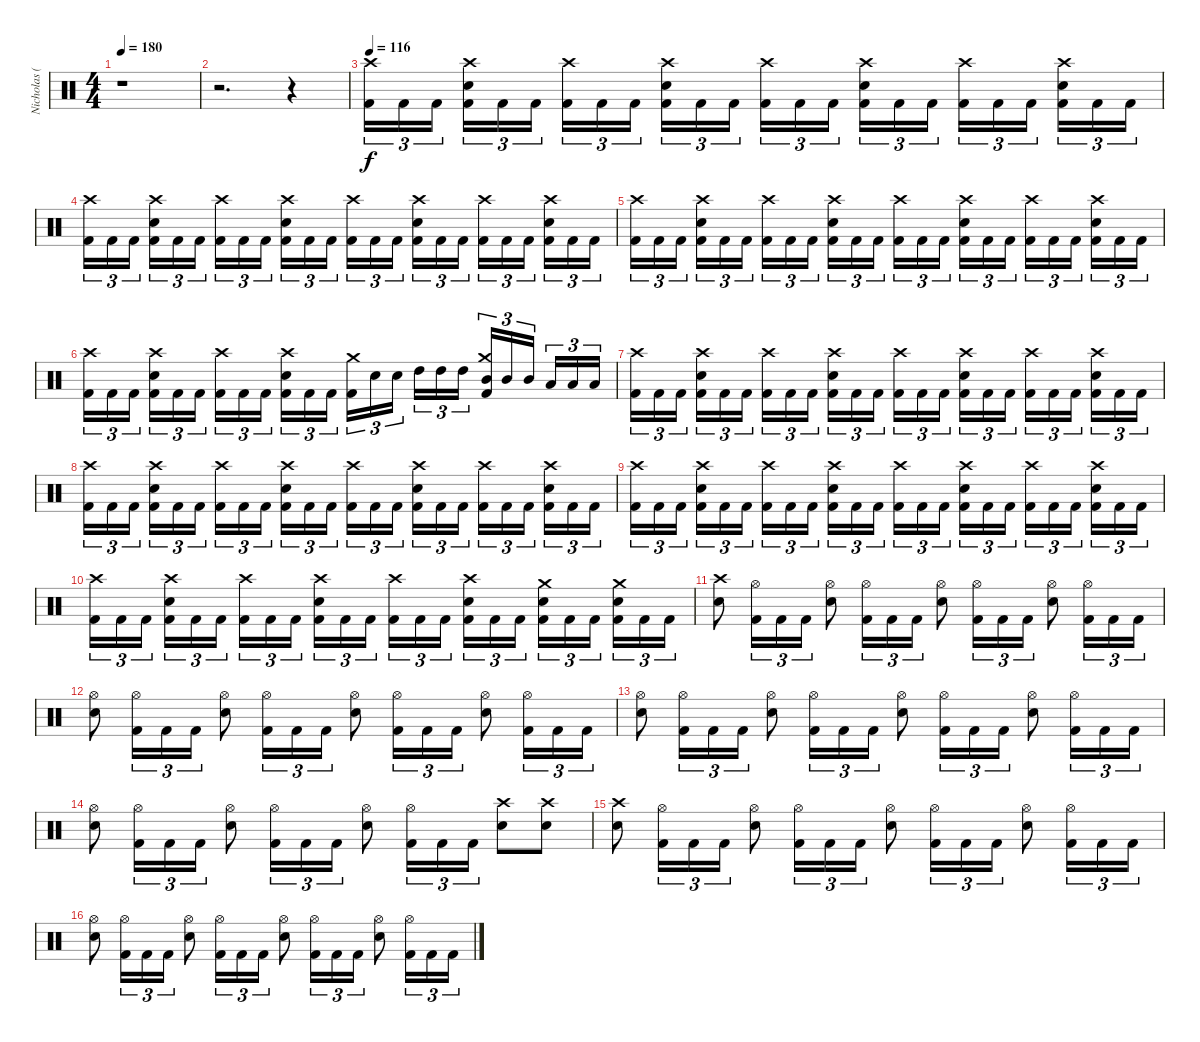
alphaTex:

\track ("Nicholas (Drums)" "Nicholas (") {instrument percussion}
\staff {score}
\articulation defaults
\ts (4 4)
\tempo 180
\clef neutral
\ks c
r.1{dy f} |
r.2{d} r.4 |
\tempo 116
("Crash high (hit)" "Kick (hit) 2").16{tu (3 2)} "Kick (hit) 2".16{tu (3 2)} "Kick (hit) 2".16{tu (3 2)} ("Crash high (hit)" "Electric Snare (hit)" "Kick (hit) 2").16{tu (3 2)} "Kick (hit) 2".16{tu (3 2)} "Kick (hit) 2".16{tu (3 2)} ("Crash high (hit)" "Kick (hit) 2").16{tu (3 2)} "Kick (hit) 2".16{tu (3 2)} "Kick (hit) 2".16{tu (3 2)} ("Crash high (hit)" "Electric Snare (hit)" "Kick (hit) 2").16{tu (3 2)} "Kick (hit) 2".16{tu (3 2)} "Kick (hit) 2".16{tu (3 2)} ("Crash high (hit)" "Kick (hit) 2").16{tu (3 2)} "Kick (hit) 2".16{tu (3 2)} "Kick (hit) 2".16{tu (3 2)} ("Crash high (hit)" "Electric Snare (hit)" "Kick (hit) 2").16{tu (3 2)} "Kick (hit) 2".16{tu (3 2)} "Kick (hit) 2".16{tu (3 2)} ("Crash high (hit)" "Kick (hit) 2").16{tu (3 2)} "Kick (hit) 2".16{tu (3 2)} "Kick (hit) 2".16{tu (3 2)} ("Crash high (hit)" "Electric Snare (hit)" "Kick (hit) 2").16{tu (3 2)} "Kick (hit) 2".16{tu (3 2)} "Kick (hit) 2".16{tu (3 2)} |
("Crash high (hit)" "Kick (hit) 2").16{tu (3 2)} "Kick (hit) 2".16{tu (3 2)} "Kick (hit) 2".16{tu (3 2)} ("Crash high (hit)" "Electric Snare (hit)" "Kick (hit) 2").16{tu (3 2)} "Kick (hit) 2".16{tu (3 2)} "Kick (hit) 2".16{tu (3 2)} ("Crash high (hit)" "Kick (hit) 2").16{tu (3 2)} "Kick (hit) 2".16{tu (3 2)} "Kick (hit) 2".16{tu (3 2)} ("Crash high (hit)" "Electric Snare (hit)" "Kick (hit) 2").16{tu (3 2)} "Kick (hit) 2".16{tu (3 2)} "Kick (hit) 2".16{tu (3 2)} ("Crash high (hit)" "Kick (hit) 2").16{tu (3 2)} "Kick (hit) 2".16{tu (3 2)} "Kick (hit) 2".16{tu (3 2)} ("Crash high (hit)" "Electric Snare (hit)" "Kick (hit) 2").16{tu (3 2)} "Kick (hit) 2".16{tu (3 2)} "Kick (hit) 2".16{tu (3 2)} ("Crash high (hit)" "Kick (hit) 2").16{tu (3 2)} "Kick (hit) 2".16{tu (3 2)} "Kick (hit) 2".16{tu (3 2)} ("Crash high (hit)" "Electric Snare (hit)" "Kick (hit) 2").16{tu (3 2)} "Kick (hit) 2".16{tu (3 2)} "Kick (hit) 2".16{tu (3 2)} |
("Crash high (hit)" "Kick (hit) 2").16{tu (3 2)} "Kick (hit) 2".16{tu (3 2)} "Kick (hit) 2".16{tu (3 2)} ("Crash high (hit)" "Electric Snare (hit)" "Kick (hit) 2").16{tu (3 2)} "Kick (hit) 2".16{tu (3 2)} "Kick (hit) 2".16{tu (3 2)} ("Crash high (hit)" "Kick (hit) 2").16{tu (3 2)} "Kick (hit) 2".16{tu (3 2)} "Kick (hit) 2".16{tu (3 2)} ("Crash high (hit)" "Electric Snare (hit)" "Kick (hit) 2").16{tu (3 2)} "Kick (hit) 2".16{tu (3 2)} "Kick (hit) 2".16{tu (3 2)} ("Crash high (hit)" "Kick (hit) 2").16{tu (3 2)} "Kick (hit) 2".16{tu (3 2)} "Kick (hit) 2".16{tu (3 2)} ("Crash high (hit)" "Electric Snare (hit)" "Kick (hit) 2").16{tu (3 2)} "Kick (hit) 2".16{tu (3 2)} "Kick (hit) 2".16{tu (3 2)} ("Crash high (hit)" "Kick (hit) 2").16{tu (3 2)} "Kick (hit) 2".16{tu (3 2)} "Kick (hit) 2".16{tu (3 2)} ("Crash high (hit)" "Electric Snare (hit)" "Kick (hit) 2").16{tu (3 2)} "Kick (hit) 2".16{tu (3 2)} "Kick (hit) 2".16{tu (3 2)} |
("Crash high (hit)" "Kick (hit) 2").16{tu (3 2)} "Kick (hit) 2".16{tu (3 2)} "Kick (hit) 2".16{tu (3 2)} ("Crash high (hit)" "Electric Snare (hit)" "Kick (hit) 2").16{tu (3 2)} "Kick (hit) 2".16{tu (3 2)} "Kick (hit) 2".16{tu (3 2)} ("Crash high (hit)" "Kick (hit) 2").16{tu (3 2)} "Kick (hit) 2".16{tu (3 2)} "Kick (hit) 2".16{tu (3 2)} ("Crash high (hit)" "Electric Snare (hit)" "Kick (hit) 2").16{tu (3 2)} "Kick (hit) 2".16{tu (3 2)} "Kick (hit) 2".16{tu (3 2)} ("Crash medium (hit)" "Kick (hit) 2").16{tu (3 2)} "Electric Snare (hit)".16{tu (3 2)} "Electric Snare (hit)".16{tu (3 2)} "High Tom (hit)".16{tu (3 2)} "High Tom (hit)".16{tu (3 2)} "High Tom (hit)".16{tu (3 2)} ("Crash medium (hit)" "Mid Tom (hit)" "Kick (hit) 2").16{tu (3 2)} "Mid Tom (hit)".16{tu (3 2)} "Mid Tom (hit)".16{tu (3 2)} "Low Tom (hit)".16{tu (3 2)} "Low Tom (hit)".16{tu (3 2)} "Low Tom (hit)".16{tu (3 2)} |
("Crash high (hit)" "Kick (hit) 2").16{tu (3 2)} "Kick (hit) 2".16{tu (3 2)} "Kick (hit) 2".16{tu (3 2)} ("Crash high (hit)" "Electric Snare (hit)" "Kick (hit) 2").16{tu (3 2)} "Kick (hit) 2".16{tu (3 2)} "Kick (hit) 2".16{tu (3 2)} ("Crash high (hit)" "Kick (hit) 2").16{tu (3 2)} "Kick (hit) 2".16{tu (3 2)} "Kick (hit) 2".16{tu (3 2)} ("Crash high (hit)" "Electric Snare (hit)" "Kick (hit) 2").16{tu (3 2)} "Kick (hit) 2".16{tu (3 2)} "Kick (hit) 2".16{tu (3 2)} ("Crash high (hit)" "Kick (hit) 2").16{tu (3 2)} "Kick (hit) 2".16{tu (3 2)} "Kick (hit) 2".16{tu (3 2)} ("Crash high (hit)" "Electric Snare (hit)" "Kick (hit) 2").16{tu (3 2)} "Kick (hit) 2".16{tu (3 2)} "Kick (hit) 2".16{tu (3 2)} ("Crash high (hit)" "Kick (hit) 2").16{tu (3 2)} "Kick (hit) 2".16{tu (3 2)} "Kick (hit) 2".16{tu (3 2)} ("Crash high (hit)" "Electric Snare (hit)" "Kick (hit) 2").16{tu (3 2)} "Kick (hit) 2".16{tu (3 2)} "Kick (hit) 2".16{tu (3 2)} |
("Crash high (hit)" "Kick (hit) 2").16{tu (3 2)} "Kick (hit) 2".16{tu (3 2)} "Kick (hit) 2".16{tu (3 2)} ("Crash high (hit)" "Electric Snare (hit)" "Kick (hit) 2").16{tu (3 2)} "Kick (hit) 2".16{tu (3 2)} "Kick (hit) 2".16{tu (3 2)} ("Crash high (hit)" "Kick (hit) 2").16{tu (3 2)} "Kick (hit) 2".16{tu (3 2)} "Kick (hit) 2".16{tu (3 2)} ("Crash high (hit)" "Electric Snare (hit)" "Kick (hit) 2").16{tu (3 2)} "Kick (hit) 2".16{tu (3 2)} "Kick (hit) 2".16{tu (3 2)} ("Crash high (hit)" "Kick (hit) 2").16{tu (3 2)} "Kick (hit) 2".16{tu (3 2)} "Kick (hit) 2".16{tu (3 2)} ("Crash high (hit)" "Electric Snare (hit)" "Kick (hit) 2").16{tu (3 2)} "Kick (hit) 2".16{tu (3 2)} "Kick (hit) 2".16{tu (3 2)} ("Crash high (hit)" "Kick (hit) 2").16{tu (3 2)} "Kick (hit) 2".16{tu (3 2)} "Kick (hit) 2".16{tu (3 2)} ("Crash high (hit)" "Electric Snare (hit)" "Kick (hit) 2").16{tu (3 2)} "Kick (hit) 2".16{tu (3 2)} "Kick (hit) 2".16{tu (3 2)} |
("Crash high (hit)" "Kick (hit) 2").16{tu (3 2)} "Kick (hit) 2".16{tu (3 2)} "Kick (hit) 2".16{tu (3 2)} ("Crash high (hit)" "Electric Snare (hit)" "Kick (hit) 2").16{tu (3 2)} "Kick (hit) 2".16{tu (3 2)} "Kick (hit) 2".16{tu (3 2)} ("Crash high (hit)" "Kick (hit) 2").16{tu (3 2)} "Kick (hit) 2".16{tu (3 2)} "Kick (hit) 2".16{tu (3 2)} ("Crash high (hit)" "Electric Snare (hit)" "Kick (hit) 2").16{tu (3 2)} "Kick (hit) 2".16{tu (3 2)} "Kick (hit) 2".16{tu (3 2)} ("Crash high (hit)" "Kick (hit) 2").16{tu (3 2)} "Kick (hit) 2".16{tu (3 2)} "Kick (hit) 2".16{tu (3 2)} ("Crash high (hit)" "Electric Snare (hit)" "Kick (hit) 2").16{tu (3 2)} "Kick (hit) 2".16{tu (3 2)} "Kick (hit) 2".16{tu (3 2)} ("Crash high (hit)" "Kick (hit) 2").16{tu (3 2)} "Kick (hit) 2".16{tu (3 2)} "Kick (hit) 2".16{tu (3 2)} ("Crash high (hit)" "Electric Snare (hit)" "Kick (hit) 2").16{tu (3 2)} "Kick (hit) 2".16{tu (3 2)} "Kick (hit) 2".16{tu (3 2)} |
("Crash high (hit)" "Kick (hit) 2").16{tu (3 2)} "Kick (hit) 2".16{tu (3 2)} "Kick (hit) 2".16{tu (3 2)} ("Crash high (hit)" "Electric Snare (hit)" "Kick (hit) 2").16{tu (3 2)} "Kick (hit) 2".16{tu (3 2)} "Kick (hit) 2".16{tu (3 2)} ("Crash high (hit)" "Kick (hit) 2").16{tu (3 2)} "Kick (hit) 2".16{tu (3 2)} "Kick (hit) 2".16{tu (3 2)} ("Crash high (hit)" "Electric Snare (hit)" "Kick (hit) 2").16{tu (3 2)} "Kick (hit) 2".16{tu (3 2)} "Kick (hit) 2".16{tu (3 2)} ("Crash high (hit)" "Kick (hit) 2").16{tu (3 2)} "Kick (hit) 2".16{tu (3 2)} "Kick (hit) 2".16{tu (3 2)} ("Crash high (hit)" "Electric Snare (hit)" "Kick (hit) 2").16{tu (3 2)} "Kick (hit) 2".16{tu (3 2)} "Kick (hit) 2".16{tu (3 2)} ("Crash medium (hit)" "Electric Snare (hit)" "Kick (hit) 2").16{tu (3 2)} "Kick (hit) 2".16{tu (3 2)} "Kick (hit) 2".16{tu (3 2)} ("Crash medium (hit)" "Electric Snare (hit)" "Kick (hit) 2").16{tu (3 2)} "Kick (hit) 2".16{tu (3 2)} "Kick (hit) 2".16{tu (3 2)} |
("Crash high (hit)" "Electric Snare (hit)").8 ("Hi-Hat (open)" "Kick (hit) 2").16{tu (3 2)} "Kick (hit) 2".16{tu (3 2)} "Kick (hit) 2".16{tu (3 2)} ("Hi-Hat (open)" "Electric Snare (hit)").8 ("Hi-Hat (open)" "Kick (hit) 2").16{tu (3 2)} "Kick (hit) 2".16{tu (3 2)} "Kick (hit) 2".16{tu (3 2)} ("Hi-Hat (open)" "Electric Snare (hit)").8 ("Hi-Hat (open)" "Kick (hit) 2").16{tu (3 2)} "Kick (hit) 2".16{tu (3 2)} "Kick (hit) 2".16{tu (3 2)} ("Hi-Hat (open)" "Electric Snare (hit)").8 ("Hi-Hat (open)" "Kick (hit) 2").16{tu (3 2)} "Kick (hit) 2".16{tu (3 2)} "Kick (hit) 2".16{tu (3 2)} |
("Hi-Hat (open)" "Electric Snare (hit)").8 ("Hi-Hat (open)" "Kick (hit) 2").16{tu (3 2)} "Kick (hit) 2".16{tu (3 2)} "Kick (hit) 2".16{tu (3 2)} ("Hi-Hat (open)" "Electric Snare (hit)").8 ("Hi-Hat (open)" "Kick (hit) 2").16{tu (3 2)} "Kick (hit) 2".16{tu (3 2)} "Kick (hit) 2".16{tu (3 2)} ("Hi-Hat (open)" "Electric Snare (hit)").8 ("Hi-Hat (open)" "Kick (hit) 2").16{tu (3 2)} "Kick (hit) 2".16{tu (3 2)} "Kick (hit) 2".16{tu (3 2)} ("Hi-Hat (open)" "Electric Snare (hit)").8 ("Hi-Hat (open)" "Kick (hit) 2").16{tu (3 2)} "Kick (hit) 2".16{tu (3 2)} "Kick (hit) 2".16{tu (3 2)} |
("Hi-Hat (open)" "Electric Snare (hit)").8 ("Hi-Hat (open)" "Kick (hit) 2").16{tu (3 2)} "Kick (hit) 2".16{tu (3 2)} "Kick (hit) 2".16{tu (3 2)} ("Hi-Hat (open)" "Electric Snare (hit)").8 ("Hi-Hat (open)" "Kick (hit) 2").16{tu (3 2)} "Kick (hit) 2".16{tu (3 2)} "Kick (hit) 2".16{tu (3 2)} ("Hi-Hat (open)" "Electric Snare (hit)").8 ("Hi-Hat (open)" "Kick (hit) 2").16{tu (3 2)} "Kick (hit) 2".16{tu (3 2)} "Kick (hit) 2".16{tu (3 2)} ("Hi-Hat (open)" "Electric Snare (hit)").8 ("Hi-Hat (open)" "Kick (hit) 2").16{tu (3 2)} "Kick (hit) 2".16{tu (3 2)} "Kick (hit) 2".16{tu (3 2)} |
("Hi-Hat (open)" "Electric Snare (hit)").8 ("Hi-Hat (open)" "Kick (hit) 2").16{tu (3 2)} "Kick (hit) 2".16{tu (3 2)} "Kick (hit) 2".16{tu (3 2)} ("Hi-Hat (open)" "Electric Snare (hit)").8 ("Hi-Hat (open)" "Kick (hit) 2").16{tu (3 2)} "Kick (hit) 2".16{tu (3 2)} "Kick (hit) 2".16{tu (3 2)} ("Hi-Hat (open)" "Electric Snare (hit)").8 ("Hi-Hat (open)" "Kick (hit) 2").16{tu (3 2)} "Kick (hit) 2".16{tu (3 2)} "Kick (hit) 2".16{tu (3 2)} ("Crash high (hit)" "Electric Snare (hit)").8 ("Crash high (hit)" "Electric Snare (hit)").8 |
("Crash high (hit)" "Electric Snare (hit)").8 ("Hi-Hat (open)" "Kick (hit) 2").16{tu (3 2)} "Kick (hit) 2".16{tu (3 2)} "Kick (hit) 2".16{tu (3 2)} ("Hi-Hat (open)" "Electric Snare (hit)").8 ("Hi-Hat (open)" "Kick (hit) 2").16{tu (3 2)} "Kick (hit) 2".16{tu (3 2)} "Kick (hit) 2".16{tu (3 2)} ("Hi-Hat (open)" "Electric Snare (hit)").8 ("Hi-Hat (open)" "Kick (hit) 2").16{tu (3 2)} "Kick (hit) 2".16{tu (3 2)} "Kick (hit) 2".16{tu (3 2)} ("Hi-Hat (open)" "Electric Snare (hit)").8 ("Hi-Hat (open)" "Kick (hit) 2").16{tu (3 2)} "Kick (hit) 2".16{tu (3 2)} "Kick (hit) 2".16{tu (3 2)} |
("Hi-Hat (open)" "Electric Snare (hit)").8 ("Hi-Hat (open)" "Kick (hit) 2").16{tu (3 2)} "Kick (hit) 2".16{tu (3 2)} "Kick (hit) 2".16{tu (3 2)} ("Hi-Hat (open)" "Electric Snare (hit)").8 ("Hi-Hat (open)" "Kick (hit) 2").16{tu (3 2)} "Kick (hit) 2".16{tu (3 2)} "Kick (hit) 2".16{tu (3 2)} ("Hi-Hat (open)" "Electric Snare (hit)").8 ("Hi-Hat (open)" "Kick (hit) 2").16{tu (3 2)} "Kick (hit) 2".16{tu (3 2)} "Kick (hit) 2".16{tu (3 2)} ("Hi-Hat (open)" "Electric Snare (hit)").8 ("Hi-Hat (open)" "Kick (hit) 2").16{tu (3 2)} "Kick (hit) 2".16{tu (3 2)} "Kick (hit) 2".16{tu (3 2)}
